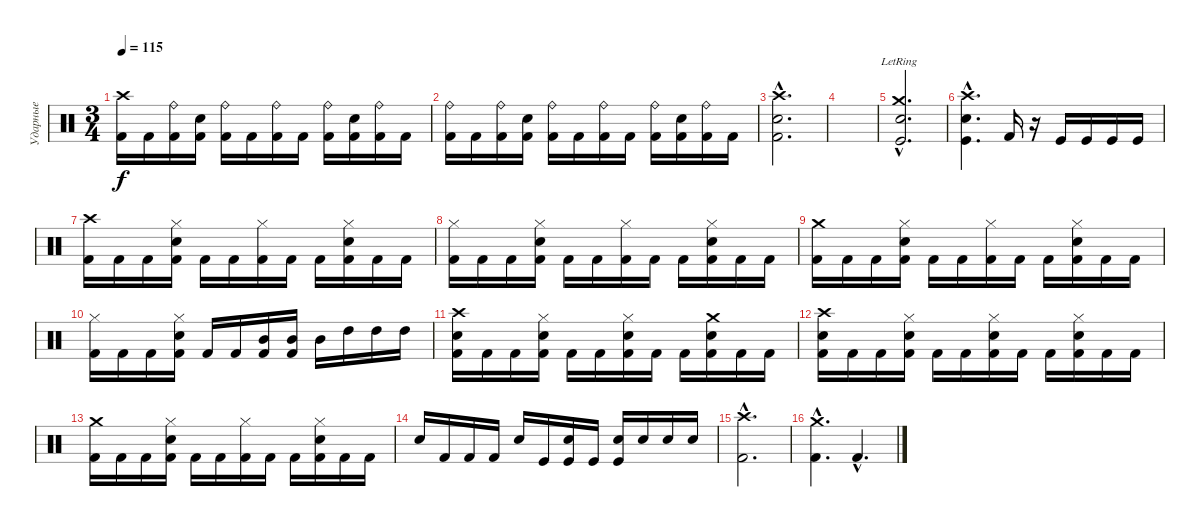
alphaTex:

\track ("Ударные" "Ударные") {instrument percussion}
\staff {score}
\articulation defaults
\ts (3 4)
\tempo 115
\clef neutral
\ks c
("Crash high (hit)" "Kick (hit) 2").16{dy f} "Kick (hit) 2".16 ("Ride (bell)" "Kick (hit) 2").16 ("Electric Snare (hit)" "Kick (hit) 2").16 ("Ride (bell)" "Kick (hit) 2").16 "Kick (hit) 2".16 ("Ride (bell)" "Kick (hit) 2").16 "Kick (hit) 2".16 ("Ride (bell)" "Kick (hit) 2").16 ("Electric Snare (hit)" "Kick (hit) 2").16 ("Ride (bell)" "Kick (hit) 2").16 "Kick (hit) 2".16 |
("Ride (bell)" "Kick (hit) 2").16 "Kick (hit) 2".16 ("Ride (bell)" "Kick (hit) 2").16 ("Electric Snare (hit)" "Kick (hit) 2").16 ("Ride (bell)" "Kick (hit) 2").16 "Kick (hit) 2".16 ("Ride (bell)" "Kick (hit) 2").16 "Kick (hit) 2".16 ("Ride (bell)" "Kick (hit) 2").16 ("Electric Snare (hit)" "Kick (hit) 2").16 ("Ride (bell)" "Kick (hit) 2").16 "Kick (hit) 2".16 |
("Crash high (hit)"{hac} "Electric Snare (hit)"{hac} "Kick (hit) 2"{hac}).2{d} |
|
("Crash medium (hit)"{hac lr} "Electric Snare (hit)"{hac lr} "Kick (hit)"{hac lr}).2{d} |
("Crash high (hit)"{hac} "Electric Snare (hit)"{hac} "Kick (hit)"{hac}).4{d} "Kick (hit) 2".16 r.16 "Kick (hit)".16 "Kick (hit)".16 "Kick (hit)".16 "Kick (hit)".16 |
("Crash high (hit)" "Kick (hit) 2").16 "Kick (hit) 2".16 "Kick (hit) 2".16 ("Hi-Hat (closed)" "Electric Snare (hit)" "Kick (hit) 2").16 "Kick (hit) 2".16 "Kick (hit) 2".16 ("Hi-Hat (closed)" "Kick (hit) 2").16 "Kick (hit) 2".16 "Kick (hit) 2".16 ("Hi-Hat (closed)" "Electric Snare (hit)" "Kick (hit) 2").16 "Kick (hit) 2".16 "Kick (hit) 2".16 |
("Hi-Hat (closed)" "Kick (hit) 2").16 "Kick (hit) 2".16 "Kick (hit) 2".16 ("Hi-Hat (closed)" "Electric Snare (hit)" "Kick (hit) 2").16 "Kick (hit) 2".16 "Kick (hit) 2".16 ("Hi-Hat (closed)" "Kick (hit) 2").16 "Kick (hit) 2".16 "Kick (hit) 2".16 ("Hi-Hat (closed)" "Electric Snare (hit)" "Kick (hit) 2").16 "Kick (hit) 2".16 "Kick (hit) 2".16 |
("Crash medium (hit)" "Kick (hit) 2").16 "Kick (hit) 2".16 "Kick (hit) 2".16 ("Hi-Hat (closed)" "Electric Snare (hit)" "Kick (hit) 2").16 "Kick (hit) 2".16 "Kick (hit) 2".16 ("Hi-Hat (closed)" "Kick (hit) 2").16 "Kick (hit) 2".16 "Kick (hit) 2".16 ("Hi-Hat (closed)" "Electric Snare (hit)" "Kick (hit) 2").16 "Kick (hit) 2".16 "Kick (hit) 2".16 |
("Hi-Hat (closed)" "Kick (hit) 2").16 "Kick (hit) 2".16 "Kick (hit) 2".16 ("Hi-Hat (closed)" "Electric Snare (hit)" "Kick (hit) 2").16 "Kick (hit) 2".16 "Kick (hit) 2".16 ("Mid Tom (hit)" "Kick (hit) 2").16 ("Mid Tom (hit)" "Kick (hit) 2").16 "Mid Tom (hit)".16 "High Tom (hit)".16 "High Tom (hit)".16 "High Tom (hit)".16 |
("Crash high (hit)" "Electric Snare (hit)" "Kick (hit) 2").16 "Kick (hit) 2".16 "Kick (hit) 2".16 ("Hi-Hat (closed)" "Electric Snare (hit)" "Kick (hit) 2").16 "Kick (hit) 2".16 "Kick (hit) 2".16 ("Hi-Hat (closed)" "Electric Snare (hit)" "Kick (hit) 2").16 "Kick (hit) 2".16 "Kick (hit) 2".16 ("Crash medium (hit)" "Electric Snare (hit)" "Kick (hit) 2").16 "Kick (hit) 2".16 "Kick (hit) 2".16 |
("Crash high (hit)" "Electric Snare (hit)" "Kick (hit) 2").16 "Kick (hit) 2".16 "Kick (hit) 2".16 ("Hi-Hat (closed)" "Electric Snare (hit)" "Kick (hit) 2").16 "Kick (hit) 2".16 "Kick (hit) 2".16 ("Hi-Hat (closed)" "Electric Snare (hit)" "Kick (hit) 2").16 "Kick (hit) 2".16 "Kick (hit) 2".16 ("Hi-Hat (closed)" "Electric Snare (hit)" "Kick (hit) 2").16 "Kick (hit) 2".16 "Kick (hit) 2".16 |
("Crash medium (hit)" "Kick (hit) 2").16 "Kick (hit) 2".16 "Kick (hit) 2".16 ("Hi-Hat (closed)" "Electric Snare (hit)" "Kick (hit) 2").16 "Kick (hit) 2".16 "Kick (hit) 2".16 ("Hi-Hat (closed)" "Kick (hit) 2").16 "Kick (hit) 2".16 "Kick (hit) 2".16 ("Hi-Hat (closed)" "Electric Snare (hit)" "Kick (hit) 2").16 "Kick (hit) 2".16 "Kick (hit) 2".16 |
"Electric Snare (hit)".16 "Kick (hit) 2".16 "Kick (hit) 2".16 "Kick (hit) 2".16 "Electric Snare (hit)".16 "Kick (hit)".16 ("Electric Snare (hit)" "Kick (hit)").16 "Kick (hit)".16 ("Electric Snare (hit)" "Kick (hit)").16 "Electric Snare (hit)".16 "Electric Snare (hit)".16 "Electric Snare (hit)".16 |
("Crash high (hit)"{hac} "Kick (hit) 2"{hac}).2{d} |
("Crash medium (hit)"{hac} "Kick (hit) 2"{hac}).4{d} "Kick (hit) 2"{hac}.4{d}
